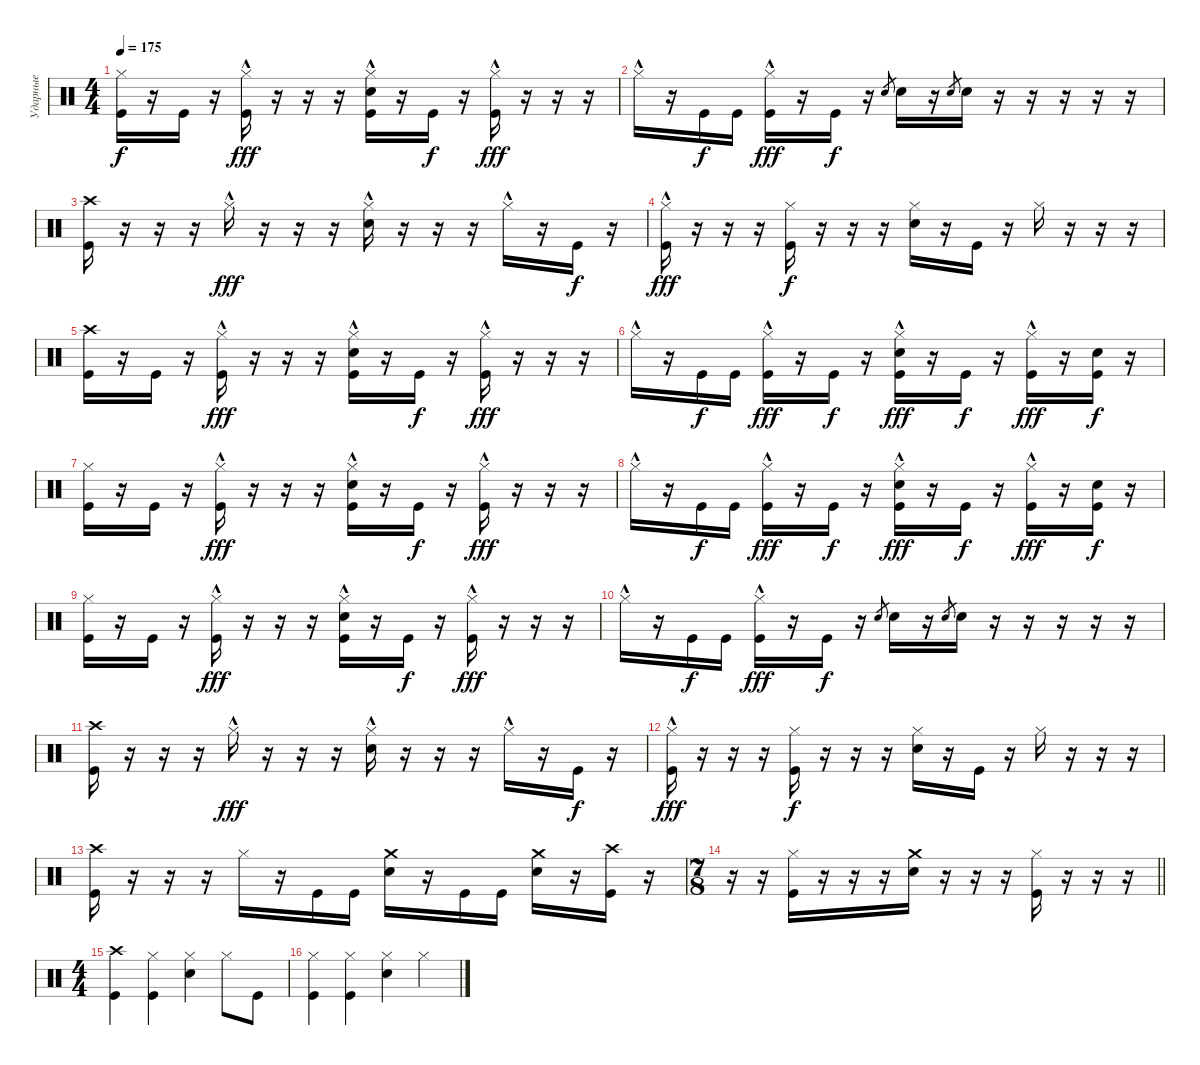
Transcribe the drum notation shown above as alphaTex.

\track ("Ударные" "Ударные") {instrument percussion}
\staff {score}
\articulation defaults
\ts (4 4)
\tempo 175
\clef neutral
\ks c
("Hi-Hat (closed)" "Kick (hit)").16{dy f} r.16 "Kick (hit)".16 r.16 ("Hi-Hat (closed)"{hac} "Kick (hit)").16{dy fff} r.16 r.16 r.16 ("Hi-Hat (closed)"{hac} "Electric Snare (hit)" "Kick (hit)").16 r.16 "Kick (hit)".16{dy f} r.16 ("Hi-Hat (closed)"{hac} "Kick (hit)").16{dy fff} r.16 r.16 r.16 |
"Hi-Hat (closed)"{hac}.16 r.16 "Kick (hit)".16{dy f} "Kick (hit)".16 ("Hi-Hat (closed)"{hac} "Kick (hit)").16{dy fff} r.16 "Kick (hit)".16{dy f} r.16 "Electric Snare (hit)".8{gr} "Electric Snare (hit)".16 r.16 "Electric Snare (hit)".8{gr} "Electric Snare (hit)".16 r.16 r.16 r.16 r.16 r.16 |
("Crash high (hit)" "Kick (hit)").16 r.16 r.16 r.16 "Hi-Hat (closed)"{hac}.16{dy fff} r.16 r.16 r.16 ("Hi-Hat (closed)"{hac} "Electric Snare (hit)").16 r.16 r.16 r.16 "Hi-Hat (closed)"{hac}.16 r.16 "Kick (hit)".16{dy f} r.16 |
("Hi-Hat (closed)"{hac} "Kick (hit)").16{dy fff} r.16 r.16 r.16 ("Hi-Hat (closed)" "Kick (hit)").16{dy f} r.16 r.16 r.16 ("Hi-Hat (closed)" "Electric Snare (hit)").16 r.16 "Kick (hit)".16 r.16 "Hi-Hat (closed)".16 r.16 r.16 r.16 |
("Crash high (hit)" "Kick (hit)").16 r.16 "Kick (hit)".16 r.16 ("Hi-Hat (closed)"{hac} "Kick (hit)").16{dy fff} r.16 r.16 r.16 ("Hi-Hat (closed)"{hac} "Electric Snare (hit)" "Kick (hit)").16 r.16 "Kick (hit)".16{dy f} r.16 ("Hi-Hat (closed)"{hac} "Kick (hit)").16{dy fff} r.16 r.16 r.16 |
"Hi-Hat (closed)"{hac}.16 r.16 "Kick (hit)".16{dy f} "Kick (hit)".16 ("Hi-Hat (closed)"{hac} "Kick (hit)").16{dy fff} r.16 "Kick (hit)".16{dy f} r.16 ("Electric Snare (hit)" "Hi-Hat (closed)"{hac} "Kick (hit)").16{dy fff} r.16 "Kick (hit)".16{dy f} r.16 ("Hi-Hat (closed)"{hac} "Kick (hit)").16{dy fff} r.16 ("Electric Snare (hit)" "Kick (hit)").16{dy f} r.16 |
("Hi-Hat (closed)" "Kick (hit)").16 r.16 "Kick (hit)".16 r.16 ("Hi-Hat (closed)"{hac} "Kick (hit)").16{dy fff} r.16 r.16 r.16 ("Hi-Hat (closed)"{hac} "Electric Snare (hit)" "Kick (hit)").16 r.16 "Kick (hit)".16{dy f} r.16 ("Hi-Hat (closed)"{hac} "Kick (hit)").16{dy fff} r.16 r.16 r.16 |
"Hi-Hat (closed)"{hac}.16 r.16 "Kick (hit)".16{dy f} "Kick (hit)".16 ("Hi-Hat (closed)"{hac} "Kick (hit)").16{dy fff} r.16 "Kick (hit)".16{dy f} r.16 ("Electric Snare (hit)" "Hi-Hat (closed)"{hac} "Kick (hit)").16{dy fff} r.16 "Kick (hit)".16{dy f} r.16 ("Hi-Hat (closed)"{hac} "Kick (hit)").16{dy fff} r.16 ("Electric Snare (hit)" "Kick (hit)").16{dy f} r.16 |
("Hi-Hat (closed)" "Kick (hit)").16 r.16 "Kick (hit)".16 r.16 ("Hi-Hat (closed)"{hac} "Kick (hit)").16{dy fff} r.16 r.16 r.16 ("Hi-Hat (closed)"{hac} "Electric Snare (hit)" "Kick (hit)").16 r.16 "Kick (hit)".16{dy f} r.16 ("Hi-Hat (closed)"{hac} "Kick (hit)").16{dy fff} r.16 r.16 r.16 |
"Hi-Hat (closed)"{hac}.16 r.16 "Kick (hit)".16{dy f} "Kick (hit)".16 ("Hi-Hat (closed)"{hac} "Kick (hit)").16{dy fff} r.16 "Kick (hit)".16{dy f} r.16 "Electric Snare (hit)".8{gr} "Electric Snare (hit)".16 r.16 "Electric Snare (hit)".8{gr} "Electric Snare (hit)".16 r.16 r.16 r.16 r.16 r.16 |
("Crash high (hit)" "Kick (hit)").16 r.16 r.16 r.16 "Hi-Hat (closed)"{hac}.16{dy fff} r.16 r.16 r.16 ("Hi-Hat (closed)"{hac} "Electric Snare (hit)").16 r.16 r.16 r.16 "Hi-Hat (closed)"{hac}.16 r.16 "Kick (hit)".16{dy f} r.16 |
("Hi-Hat (closed)"{hac} "Kick (hit)").16{dy fff} r.16 r.16 r.16 ("Hi-Hat (closed)" "Kick (hit)").16{dy f} r.16 r.16 r.16 ("Hi-Hat (closed)" "Electric Snare (hit)").16 r.16 "Kick (hit)".16 r.16 "Hi-Hat (closed)".16 r.16 r.16 r.16 |
("Crash high (hit)" "Kick (hit)").16 r.16 r.16 r.16 "Hi-Hat (closed)".16 r.16 "Kick (hit)".16 "Kick (hit)".16 ("Crash medium (hit)" "Electric Snare (hit)").16 r.16 "Kick (hit)".16 "Kick (hit)".16 ("Crash medium (hit)" "Electric Snare (hit)").16 r.16 ("Crash high (hit)" "Kick (hit)").16 r.16 |
\ts (7 8)
\barLineRight lightlight
r.16 r.16 ("Hi-Hat (closed)" "Kick (hit)").16 r.16 r.16 r.16 ("Crash medium (hit)" "Electric Snare (hit)").16 r.16 r.16 r.16 ("Hi-Hat (closed)" "Kick (hit)").16 r.16 r.16 r.16 |
\ts (4 4)
("Crash high (hit)" "Kick (hit)").4 ("Hi-Hat (closed)" "Kick (hit)").4 ("Hi-Hat (closed)" "Electric Snare (hit)").4 "Hi-Hat (closed)".8 "Kick (hit)".8 |
("Kick (hit)" "Hi-Hat (closed)").4 ("Hi-Hat (closed)" "Kick (hit)").4 ("Hi-Hat (closed)" "Electric Snare (hit)").4 "Hi-Hat (closed)".4
